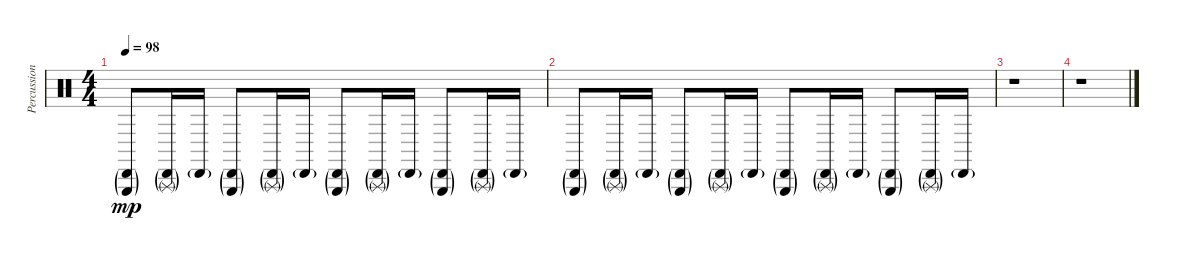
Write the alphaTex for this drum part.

\track ("Percussion" "Percussion") {instrument percussion}
\staff {score}
\articulation defaults
\ts (4 4)
\tempo 98
\clef neutral
\ks c
("Cabasa (hit)"{g} "Triangle (hit)"{g}).8{dy mp} ("Cabasa (hit)"{g} "Triangle (rnute)"{g}).16 "Cabasa (hit)"{g}.16 ("Cabasa (hit)"{g} "Triangle (hit)"{g}).8 ("Cabasa (hit)"{g} "Triangle (rnute)"{g}).16 "Cabasa (hit)"{g}.16 ("Cabasa (hit)"{g} "Triangle (hit)"{g}).8 ("Cabasa (hit)"{g} "Triangle (rnute)"{g}).16 "Cabasa (hit)"{g}.16 ("Cabasa (hit)"{g} "Triangle (hit)"{g}).8 ("Cabasa (hit)"{g} "Triangle (rnute)"{g}).16 "Cabasa (hit)"{g}.16 |
("Cabasa (hit)"{g} "Triangle (hit)"{g}).8 ("Cabasa (hit)"{g} "Triangle (rnute)"{g}).16 "Cabasa (hit)"{g}.16 ("Cabasa (hit)"{g} "Triangle (hit)"{g}).8 ("Cabasa (hit)"{g} "Triangle (rnute)"{g}).16 "Cabasa (hit)"{g}.16 ("Cabasa (hit)"{g} "Triangle (hit)"{g}).8 ("Cabasa (hit)"{g} "Triangle (rnute)"{g}).16 "Cabasa (hit)"{g}.16 ("Cabasa (hit)"{g} "Triangle (hit)"{g}).8 ("Cabasa (hit)"{g} "Triangle (rnute)"{g}).16 "Cabasa (hit)"{g}.16 |
r.1 |
r.1
